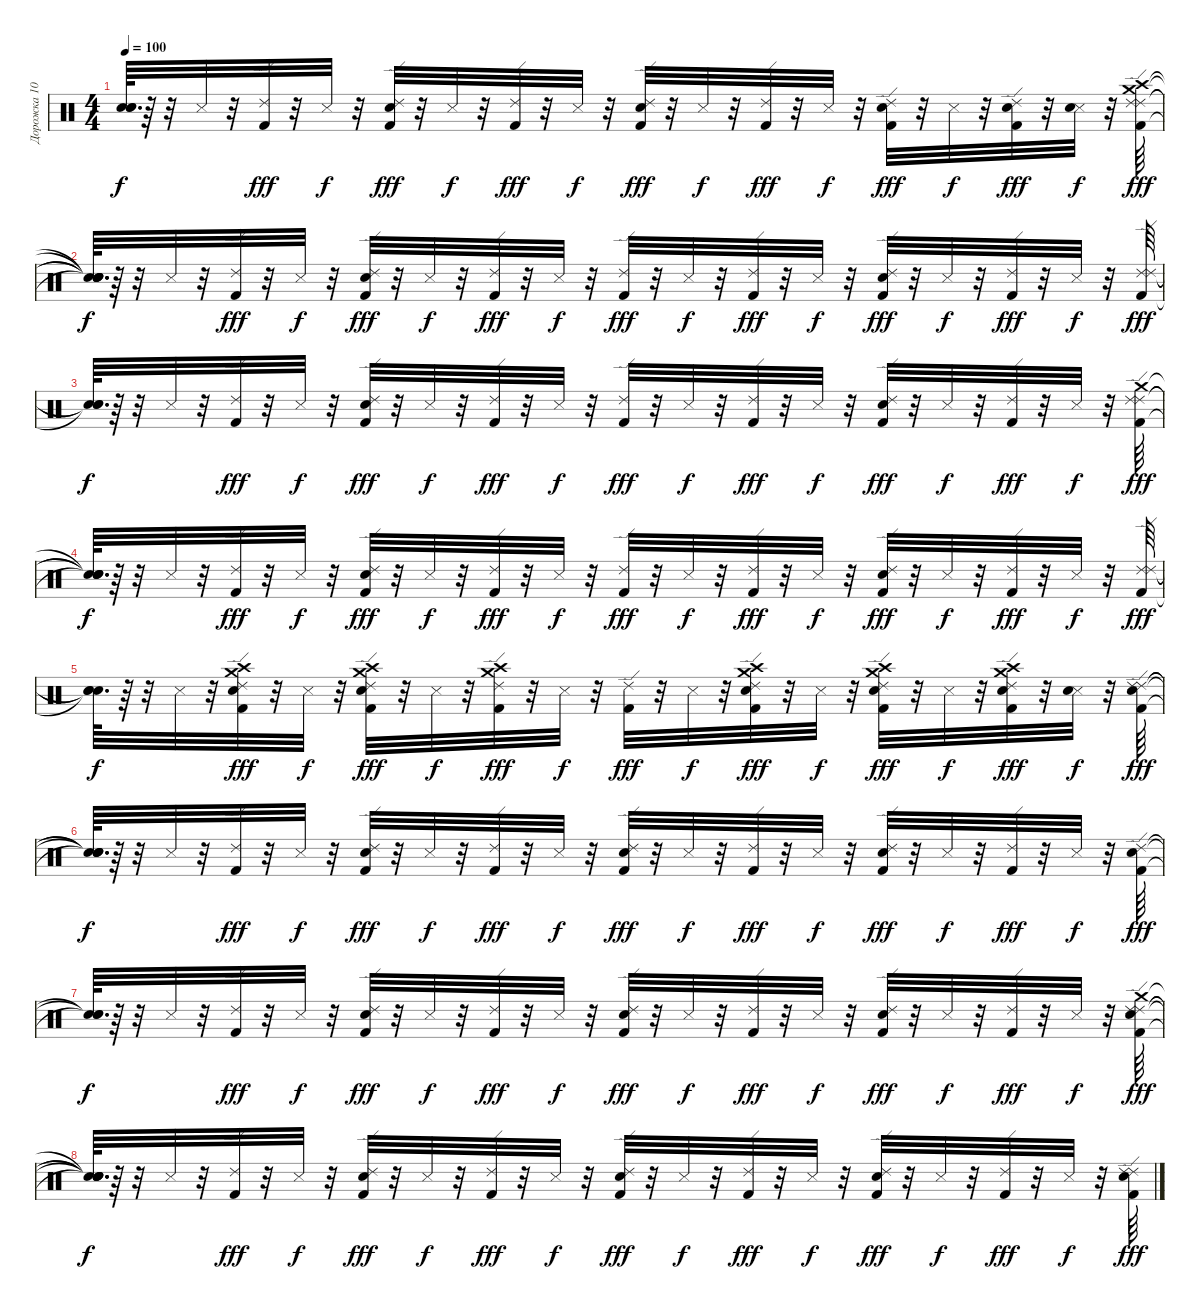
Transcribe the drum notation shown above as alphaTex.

\track ("Дорожка 10" "Дорожка 10") {instrument percussion}
\staff {score}
\articulation defaults
\ts (4 4)
\tempo 100
\clef neutral
\ks c
("Snare (hit)"{t} "Snare (hit)"{t} "Snare (hit)"{t}).64{d dy f} r.64 r.32 "Metronome (hit)".32 r.32 ("Kick (hit) 2" "Ride (edge) 2").32{dy fff} r.32 "Metronome (hit)".32{dy f} r.32 ("Kick (hit) 2" "Snare (hit) 2" "Ride (edge) 2").32{dy fff} r.32 "Metronome (hit)".32{dy f} r.32 ("Kick (hit) 2" "Ride (edge) 2").32{dy fff} r.32 "Metronome (hit)".32{dy f} r.32 ("Kick (hit) 2" "Snare (hit) 2" "Ride (edge) 2").32{dy fff} r.32 "Metronome (hit)".32{dy f} r.32 ("Kick (hit) 2" "Ride (edge) 2").32{dy fff} r.32 "Metronome (hit)".32{dy f} r.32 ("Kick (hit) 2" "Snare (hit) 2" "Ride (edge) 2").32{dy fff} r.32 "Metronome (hit)".32{dy f} r.32 ("Kick (hit) 2" "Snare (hit) 2" "Ride (edge) 2").32{dy fff} r.32 ("Metronome (hit)" "Snare (hit) 2").32{dy f} r.32 ("Ride (edge) 2" "Crash high (hit)" "Crash medium (hit)" "Kick (hit) 2" "Ride (edge) 2").64{dy fff} |
("Snare (hit)"{t} "Snare (hit)"{t} "Snare (hit)"{t} "Snare (hit)"{t} "Snare (hit)"{t}).64{d dy f} r.64 r.32 "Metronome (hit)".32 r.32 ("Kick (hit) 2" "Ride (edge) 2").32{dy fff} r.32 "Metronome (hit)".32{dy f} r.32 ("Snare (hit) 2" "Kick (hit) 2" "Ride (edge) 2").32{dy fff} r.32 "Metronome (hit)".32{dy f} r.32 ("Kick (hit) 2" "Ride (edge) 2").32{dy fff} r.32 "Metronome (hit)".32{dy f} r.32 ("Kick (hit) 2" "Ride (edge) 2").32{dy fff} r.32 "Metronome (hit)".32{dy f} r.32 ("Kick (hit) 2" "Ride (edge) 2").32{dy fff} r.32 "Metronome (hit)".32{dy f} r.32 ("Snare (hit) 2" "Kick (hit) 2" "Ride (edge) 2").32{dy fff} r.32 "Metronome (hit)".32{dy f} r.32 ("Kick (hit) 2" "Ride (edge) 2").32{dy fff} r.32 "Metronome (hit)".32{dy f} r.32 ("Ride (edge) 2" "Kick (hit) 2" "Ride (edge) 2").64{dy fff} |
("Snare (hit)"{t} "Snare (hit)"{t} "Snare (hit)"{t}).64{d dy f} r.64 r.32 "Metronome (hit)".32 r.32 ("Kick (hit) 2" "Ride (edge) 2").32{dy fff} r.32 "Metronome (hit)".32{dy f} r.32 ("Snare (hit) 2" "Kick (hit) 2" "Ride (edge) 2").32{dy fff} r.32 "Metronome (hit)".32{dy f} r.32 ("Kick (hit) 2" "Ride (edge) 2").32{dy fff} r.32 "Metronome (hit)".32{dy f} r.32 ("Kick (hit) 2" "Ride (edge) 2").32{dy fff} r.32 "Metronome (hit)".32{dy f} r.32 ("Kick (hit) 2" "Ride (edge) 2").32{dy fff} r.32 "Metronome (hit)".32{dy f} r.32 ("Snare (hit) 2" "Kick (hit) 2" "Ride (edge) 2").32{dy fff} r.32 "Metronome (hit)".32{dy f} r.32 ("Kick (hit) 2" "Ride (edge) 2").32{dy fff} r.32 "Metronome (hit)".32{dy f} r.32 ("Ride (edge) 2" "Crash medium (hit)" "Kick (hit) 2" "Ride (edge) 2").64{dy fff} |
("Snare (hit)"{t} "Snare (hit)"{t} "Snare (hit)"{t} "Snare (hit)"{t}).64{d dy f} r.64 r.32 "Metronome (hit)".32 r.32 ("Kick (hit) 2" "Ride (edge) 2").32{dy fff} r.32 "Metronome (hit)".32{dy f} r.32 ("Snare (hit) 2" "Kick (hit) 2" "Ride (edge) 2").32{dy fff} r.32 "Metronome (hit)".32{dy f} r.32 ("Kick (hit) 2" "Ride (edge) 2").32{dy fff} r.32 "Metronome (hit)".32{dy f} r.32 ("Kick (hit) 2" "Ride (edge) 2").32{dy fff} r.32 "Metronome (hit)".32{dy f} r.32 ("Kick (hit) 2" "Ride (edge) 2").32{dy fff} r.32 "Metronome (hit)".32{dy f} r.32 ("Snare (hit) 2" "Kick (hit) 2" "Ride (edge) 2").32{dy fff} r.32 "Metronome (hit)".32{dy f} r.32 ("Kick (hit) 2" "Ride (edge) 2").32{dy fff} r.32 "Metronome (hit)".32{dy f} r.32 ("Ride (edge) 2" "Kick (hit) 2" "Ride (edge) 2").64{dy fff} |
("Snare (hit)"{t} "Snare (hit)"{t} "Snare (hit)"{t}).64{d dy f} r.64 r.32 "Metronome (hit)".32 r.32 ("Kick (hit) 2" "Crash medium (hit)" "Crash high (hit)" "Snare (hit) 2" "Ride (edge) 2").32{dy fff} r.32 "Metronome (hit)".32{dy f} r.32 ("Kick (hit) 2" "Crash high (hit)" "Crash medium (hit)" "Snare (hit) 2" "Ride (edge) 2").32{dy fff} r.32 "Metronome (hit)".32{dy f} r.32 ("Kick (hit) 2" "Crash medium (hit)" "Crash high (hit)" "Ride (edge) 2").32{dy fff} r.32 "Metronome (hit)".32{dy f} r.32 ("Kick (hit) 2" "Ride (edge) 2").32{dy fff} r.32 "Metronome (hit)".32{dy f} r.32 ("Kick (hit) 2" "Crash medium (hit)" "Crash high (hit)" "Snare (hit) 2" "Ride (edge) 2").32{dy fff} r.32 "Metronome (hit)".32{dy f} r.32 ("Kick (hit) 2" "Crash medium (hit)" "Crash high (hit)" "Snare (hit) 2" "Ride (edge) 2").32{dy fff} r.32 "Metronome (hit)".32{dy f} r.32 ("Kick (hit) 2" "Snare (hit) 2" "Crash medium (hit)" "Crash high (hit)" "Ride (edge) 2").32{dy fff} r.32 ("Metronome (hit)" "Snare (hit) 2").32{dy f} r.32 ("Snare (hit) 2" "Kick (hit) 2" "Ride (edge) 2" "Ride (edge) 2").64{dy fff} |
("Snare (hit)"{t} "Snare (hit)"{t} "Snare (hit)"{t} "Snare (hit)"{t}).64{d dy f} r.64 r.32 "Metronome (hit)".32 r.32 ("Kick (hit) 2" "Ride (edge) 2").32{dy fff} r.32 "Metronome (hit)".32{dy f} r.32 ("Kick (hit) 2" "Snare (hit) 2" "Ride (edge) 2").32{dy fff} r.32 "Metronome (hit)".32{dy f} r.32 ("Kick (hit) 2" "Ride (edge) 2").32{dy fff} r.32 "Metronome (hit)".32{dy f} r.32 ("Snare (hit) 2" "Kick (hit) 2" "Ride (edge) 2").32{dy fff} r.32 "Metronome (hit)".32{dy f} r.32 ("Kick (hit) 2" "Ride (edge) 2").32{dy fff} r.32 "Metronome (hit)".32{dy f} r.32 ("Kick (hit) 2" "Snare (hit) 2" "Ride (edge) 2").32{dy fff} r.32 "Metronome (hit)".32{dy f} r.32 ("Kick (hit) 2" "Ride (edge) 2").32{dy fff} r.32 "Metronome (hit)".32{dy f} r.32 ("Snare (hit) 2" "Kick (hit) 2" "Ride (edge) 2").64{dy fff} |
("Snare (hit)"{t} "Snare (hit)"{t} "Snare (hit)"{t}).64{d dy f} r.64 r.32 "Metronome (hit)".32 r.32 ("Kick (hit) 2" "Ride (edge) 2").32{dy fff} r.32 "Metronome (hit)".32{dy f} r.32 ("Kick (hit) 2" "Snare (hit) 2" "Ride (edge) 2").32{dy fff} r.32 "Metronome (hit)".32{dy f} r.32 ("Kick (hit) 2" "Ride (edge) 2").32{dy fff} r.32 "Metronome (hit)".32{dy f} r.32 ("Snare (hit) 2" "Kick (hit) 2" "Ride (edge) 2").32{dy fff} r.32 "Metronome (hit)".32{dy f} r.32 ("Kick (hit) 2" "Ride (edge) 2").32{dy fff} r.32 "Metronome (hit)".32{dy f} r.32 ("Kick (hit) 2" "Snare (hit) 2" "Ride (edge) 2").32{dy fff} r.32 "Metronome (hit)".32{dy f} r.32 ("Kick (hit) 2" "Ride (edge) 2").32{dy fff} r.32 "Metronome (hit)".32{dy f} r.32 ("Ride (edge) 2" "Snare (hit) 2" "Crash medium (hit)" "Kick (hit) 2" "Ride (edge) 2").64{dy fff} |
("Snare (hit)"{t} "Snare (hit)"{t} "Snare (hit)"{t} "Snare (hit)"{t} "Snare (hit)"{t}).64{d dy f} r.64 r.32 "Metronome (hit)".32 r.32 ("Kick (hit) 2" "Ride (edge) 2").32{dy fff} r.32 "Metronome (hit)".32{dy f} r.32 ("Kick (hit) 2" "Snare (hit) 2" "Ride (edge) 2").32{dy fff} r.32 "Metronome (hit)".32{dy f} r.32 ("Kick (hit) 2" "Ride (edge) 2").32{dy fff} r.32 "Metronome (hit)".32{dy f} r.32 ("Snare (hit) 2" "Kick (hit) 2" "Ride (edge) 2").32{dy fff} r.32 "Metronome (hit)".32{dy f} r.32 ("Kick (hit) 2" "Ride (edge) 2").32{dy fff} r.32 "Metronome (hit)".32{dy f} r.32 ("Kick (hit) 2" "Snare (hit) 2" "Ride (edge) 2").32{dy fff} r.32 "Metronome (hit)".32{dy f} r.32 ("Kick (hit) 2" "Ride (edge) 2").32{dy fff} r.32 "Metronome (hit)".32{dy f} r.32 ("Ride (edge) 2" "Snare (hit) 2" "Kick (hit) 2" "Ride (edge) 2").64{dy fff}
